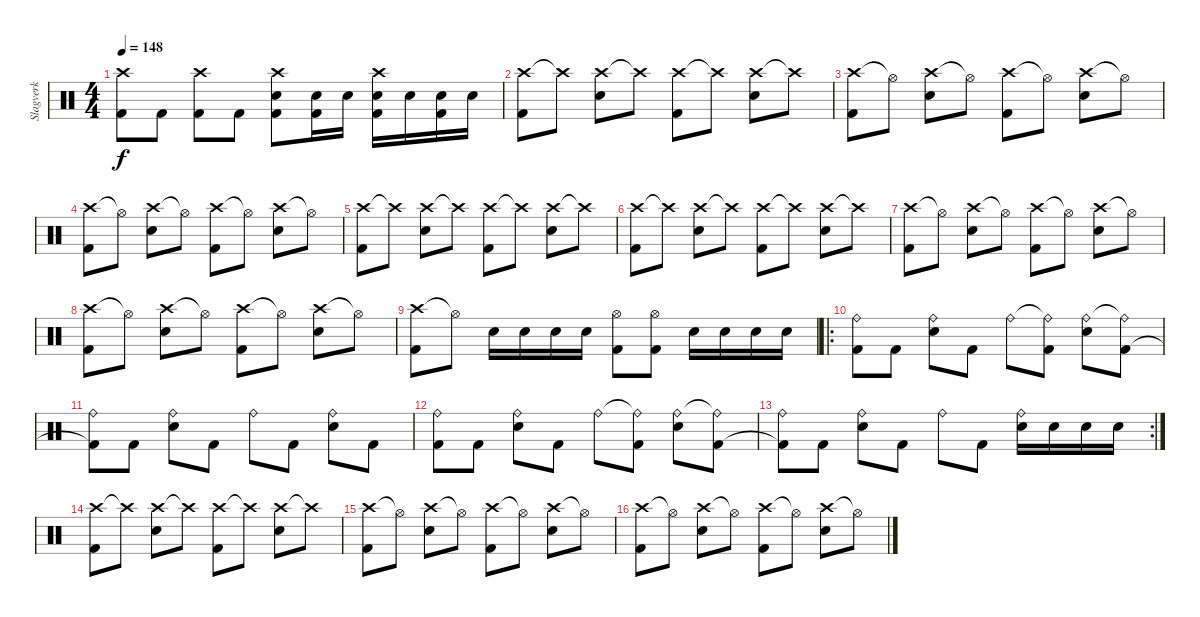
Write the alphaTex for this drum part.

\track ("Slagverk" "Slagverk") {instrument percussion}
\staff {score}
\articulation defaults
\ts (4 4)
\tempo 148
\clef neutral
\ks c
("Crash high (hit)" "Kick (hit) 2").8{dy f} "Kick (hit) 2".8 ("Crash high (hit)" "Kick (hit) 2").8 "Kick (hit) 2".8 ("Crash high (hit)" "Electric Snare (hit)" "Kick (hit) 2").8 ("Electric Snare (hit)" "Kick (hit) 2").16 "Electric Snare (hit)".16 ("Crash high (hit)" "Electric Snare (hit)" "Kick (hit) 2").16 "Electric Snare (hit)".16 ("Electric Snare (hit)" "Kick (hit) 2").16 "Electric Snare (hit)".16 |
("Crash high (hit)" "Kick (hit) 2").8 "Crash high (hit)"{t}.8 ("Crash high (hit)" "Electric Snare (hit)").8 "Crash high (hit)"{t}.8 ("Crash high (hit)" "Kick (hit) 2").8 "Crash high (hit)"{t}.8 ("Crash high (hit)" "Electric Snare (hit)").8 "Crash high (hit)"{t}.8 |
("Crash high (hit)" "Kick (hit) 2").8 "Hi-Hat (open)"{t}.8 ("Crash high (hit)" "Electric Snare (hit)").8 "Hi-Hat (open)"{t}.8 ("Crash high (hit)" "Kick (hit) 2").8 "Hi-Hat (open)"{t}.8 ("Crash high (hit)" "Electric Snare (hit)").8 "Hi-Hat (open)"{t}.8 |
("Crash high (hit)" "Kick (hit) 2").8 "Hi-Hat (open)"{t}.8 ("Crash high (hit)" "Electric Snare (hit)").8 "Hi-Hat (open)"{t}.8 ("Crash high (hit)" "Kick (hit) 2").8 "Hi-Hat (open)"{t}.8 ("Crash high (hit)" "Electric Snare (hit)").8 "Hi-Hat (open)"{t}.8 |
("Crash high (hit)" "Kick (hit) 2").8 "Crash high (hit)"{t}.8 ("Crash high (hit)" "Electric Snare (hit)").8 "Crash high (hit)"{t}.8 ("Crash high (hit)" "Kick (hit) 2").8 "Crash high (hit)"{t}.8 ("Crash high (hit)" "Electric Snare (hit)").8 "Crash high (hit)"{t}.8 |
("Crash high (hit)" "Kick (hit) 2").8 "Crash high (hit)"{t}.8 ("Crash high (hit)" "Electric Snare (hit)").8 "Crash high (hit)"{t}.8 ("Crash high (hit)" "Kick (hit) 2").8 "Crash high (hit)"{t}.8 ("Crash high (hit)" "Electric Snare (hit)").8 "Crash high (hit)"{t}.8 |
("Crash high (hit)" "Kick (hit) 2").8 "Hi-Hat (open)"{t}.8 ("Crash high (hit)" "Electric Snare (hit)").8 "Hi-Hat (open)"{t}.8 ("Crash high (hit)" "Kick (hit) 2").8 "Hi-Hat (open)"{t}.8 ("Crash high (hit)" "Electric Snare (hit)").8 "Hi-Hat (open)"{t}.8 |
("Crash high (hit)" "Kick (hit) 2").8 "Hi-Hat (open)"{t}.8 ("Crash high (hit)" "Electric Snare (hit)").8 "Hi-Hat (open)"{t}.8 ("Crash high (hit)" "Kick (hit) 2").8 "Hi-Hat (open)"{t}.8 ("Crash high (hit)" "Electric Snare (hit)").8 "Hi-Hat (open)"{t}.8 |
("Crash high (hit)" "Kick (hit) 2").8 "Hi-Hat (open)"{t}.8 "Electric Snare (hit)".16 "Electric Snare (hit)".16 "Electric Snare (hit)".16 "Electric Snare (hit)".16 ("Hi-Hat (open)" "Kick (hit) 2").8 ("Hi-Hat (open)" "Kick (hit) 2").8 "Electric Snare (hit)".16 "Electric Snare (hit)".16 "Electric Snare (hit)".16 "Electric Snare (hit)".16 |
\ro
("Ride (bell)" "Kick (hit) 2").8 "Kick (hit) 2".8 ("Ride (bell)" "Electric Snare (hit)").8 "Kick (hit) 2".8 "Ride (bell)".8 ("Ride (bell)"{t} "Kick (hit) 2").8 ("Ride (bell)" "Electric Snare (hit)").8 ("Ride (bell)"{t} "Kick (hit) 2").8 |
("Ride (bell)" "Kick (hit) 2"{t}).8 "Kick (hit) 2".8 ("Ride (bell)" "Electric Snare (hit)").8 "Kick (hit) 2".8 "Ride (bell)".8 "Kick (hit) 2".8 ("Ride (bell)" "Electric Snare (hit)").8 "Kick (hit) 2".8 |
("Ride (bell)" "Kick (hit) 2").8 "Kick (hit) 2".8 ("Ride (bell)" "Electric Snare (hit)").8 "Kick (hit) 2".8 "Ride (bell)".8 ("Ride (bell)"{t} "Kick (hit) 2").8 ("Ride (bell)" "Electric Snare (hit)").8 ("Ride (bell)"{t} "Kick (hit) 2").8 |
\rc 2
("Ride (bell)" "Kick (hit) 2"{t}).8 "Kick (hit) 2".8 ("Ride (bell)" "Electric Snare (hit)").8 "Kick (hit) 2".8 "Ride (bell)".8 "Kick (hit) 2".8 ("Ride (bell)" "Electric Snare (hit)").16 "Electric Snare (hit)".16 "Electric Snare (hit)".16 "Electric Snare (hit)".16 |
("Crash high (hit)" "Kick (hit) 2").8 "Crash high (hit)"{t}.8 ("Crash high (hit)" "Electric Snare (hit)").8 "Crash high (hit)"{t}.8 ("Crash high (hit)" "Kick (hit) 2").8 "Crash high (hit)"{t}.8 ("Crash high (hit)" "Electric Snare (hit)").8 "Crash high (hit)"{t}.8 |
("Crash high (hit)" "Kick (hit) 2").8 "Hi-Hat (open)"{t}.8 ("Crash high (hit)" "Electric Snare (hit)").8 "Hi-Hat (open)"{t}.8 ("Crash high (hit)" "Kick (hit) 2").8 "Hi-Hat (open)"{t}.8 ("Crash high (hit)" "Electric Snare (hit)").8 "Hi-Hat (open)"{t}.8 |
("Crash high (hit)" "Kick (hit) 2").8 "Hi-Hat (open)"{t}.8 ("Crash high (hit)" "Electric Snare (hit)").8 "Hi-Hat (open)"{t}.8 ("Crash high (hit)" "Kick (hit) 2").8 "Hi-Hat (open)"{t}.8 ("Crash high (hit)" "Electric Snare (hit)").8 "Hi-Hat (open)"{t}.8
